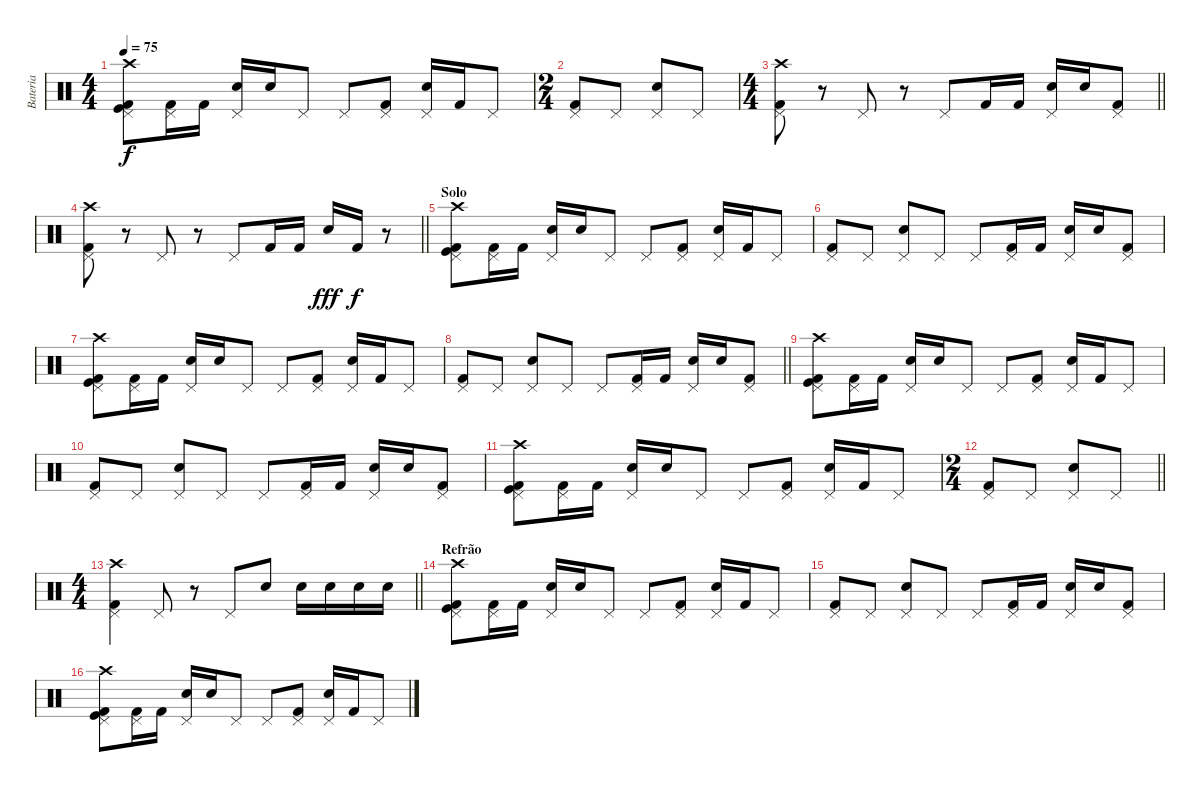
\track ("Bateria" "Bateria") {instrument percussion}
\staff {score}
\articulation defaults
\ts (4 4)
\tempo 75
\clef neutral
\ks c
("Crash high (hit)" "Kick (hit)" "Kick (hit) 2" "Pedal Hi-Hat (hit)").8{dy f} ("Kick (hit) 2" "Pedal Hi-Hat (hit)").16 "Kick (hit) 2".16 ("Snare (hit) 2" "Pedal Hi-Hat (hit)").16 "Snare (hit) 2".16 "Pedal Hi-Hat (hit)".8 "Pedal Hi-Hat (hit)".8 ("Kick (hit) 2" "Pedal Hi-Hat (hit)").8 ("Pedal Hi-Hat (hit)" "Snare (hit) 2").16 "Kick (hit) 2".16 "Pedal Hi-Hat (hit)".8 |
\ts (2 4)
("Pedal Hi-Hat (hit)" "Kick (hit) 2").8 "Pedal Hi-Hat (hit)".8 ("Snare (hit) 2" "Pedal Hi-Hat (hit)").8 "Pedal Hi-Hat (hit)".8 |
\ts (4 4)
\barLineRight lightlight
("Kick (hit) 2" "Pedal Hi-Hat (hit)" "Crash high (hit)").8 r.8 "Pedal Hi-Hat (hit)".8 r.8 "Pedal Hi-Hat (hit)".8 "Kick (hit) 2".16 "Kick (hit) 2".16 ("Pedal Hi-Hat (hit)" "Snare (hit) 2").16 "Snare (hit) 2".16 ("Kick (hit) 2" "Pedal Hi-Hat (hit)").8 |
\barLineRight lightlight
("Kick (hit) 2" "Pedal Hi-Hat (hit)" "Crash high (hit)").8 r.8 "Pedal Hi-Hat (hit)".8 r.8 "Pedal Hi-Hat (hit)".8 "Kick (hit) 2".16 "Kick (hit) 2".16 "Snare (hit) 2".16{dy fff} "Kick (hit) 2".16{dy f} r.8 |
\section ("" "Solo")
("Kick (hit)" "Crash high (hit)" "Kick (hit) 2" "Pedal Hi-Hat (hit)").8 ("Kick (hit) 2" "Pedal Hi-Hat (hit)").16 "Kick (hit) 2".16 ("Snare (hit) 2" "Pedal Hi-Hat (hit)").16 "Snare (hit) 2".16 "Pedal Hi-Hat (hit)".8 "Pedal Hi-Hat (hit)".8 ("Pedal Hi-Hat (hit)" "Kick (hit) 2").8 ("Pedal Hi-Hat (hit)" "Snare (hit) 2").16 "Kick (hit) 2".16 "Pedal Hi-Hat (hit)".8 |
("Pedal Hi-Hat (hit)" "Kick (hit) 2").8 "Pedal Hi-Hat (hit)".8 ("Snare (hit) 2" "Pedal Hi-Hat (hit)").8 "Pedal Hi-Hat (hit)".8 "Pedal Hi-Hat (hit)".8 ("Pedal Hi-Hat (hit)" "Kick (hit) 2").16 "Kick (hit) 2".16 ("Pedal Hi-Hat (hit)" "Snare (hit) 2").16 "Snare (hit) 2".16 ("Kick (hit) 2" "Pedal Hi-Hat (hit)").8 |
("Crash high (hit)" "Kick (hit) 2" "Pedal Hi-Hat (hit)" "Kick (hit)").8 ("Kick (hit) 2" "Pedal Hi-Hat (hit)").16 "Kick (hit) 2".16 ("Snare (hit) 2" "Pedal Hi-Hat (hit)").16 "Snare (hit) 2".16 "Pedal Hi-Hat (hit)".8 "Pedal Hi-Hat (hit)".8 ("Kick (hit) 2" "Pedal Hi-Hat (hit)").8 ("Pedal Hi-Hat (hit)" "Snare (hit) 2").16 "Kick (hit) 2".16 "Pedal Hi-Hat (hit)".8 |
\barLineRight lightlight
("Kick (hit) 2" "Pedal Hi-Hat (hit)").8 "Pedal Hi-Hat (hit)".8 ("Pedal Hi-Hat (hit)" "Snare (hit) 2").8 "Pedal Hi-Hat (hit)".8 "Pedal Hi-Hat (hit)".8 ("Pedal Hi-Hat (hit)" "Kick (hit) 2").16 "Kick (hit) 2".16 ("Pedal Hi-Hat (hit)" "Snare (hit) 2").16 "Snare (hit) 2".16 ("Pedal Hi-Hat (hit)" "Kick (hit) 2").8 |
("Crash high (hit)" "Kick (hit)" "Kick (hit) 2" "Pedal Hi-Hat (hit)").8 ("Kick (hit) 2" "Pedal Hi-Hat (hit)").16 "Kick (hit) 2".16 ("Snare (hit) 2" "Pedal Hi-Hat (hit)").16 "Snare (hit) 2".16 "Pedal Hi-Hat (hit)".8 "Pedal Hi-Hat (hit)".8 ("Pedal Hi-Hat (hit)" "Kick (hit) 2").8 ("Pedal Hi-Hat (hit)" "Snare (hit) 2").16 "Kick (hit) 2".16 "Pedal Hi-Hat (hit)".8 |
("Kick (hit) 2" "Pedal Hi-Hat (hit)").8 "Pedal Hi-Hat (hit)".8 ("Pedal Hi-Hat (hit)" "Snare (hit) 2").8 "Pedal Hi-Hat (hit)".8 "Pedal Hi-Hat (hit)".8 ("Pedal Hi-Hat (hit)" "Kick (hit) 2").16 "Kick (hit) 2".16 ("Pedal Hi-Hat (hit)" "Snare (hit) 2").16 "Snare (hit) 2".16 ("Kick (hit) 2" "Pedal Hi-Hat (hit)").8 |
("Crash high (hit)" "Kick (hit)" "Kick (hit) 2" "Pedal Hi-Hat (hit)").8 ("Kick (hit) 2" "Pedal Hi-Hat (hit)").16 "Kick (hit) 2".16 ("Snare (hit) 2" "Pedal Hi-Hat (hit)").16 "Snare (hit) 2".16 "Pedal Hi-Hat (hit)".8 "Pedal Hi-Hat (hit)".8 ("Kick (hit) 2" "Pedal Hi-Hat (hit)").8 ("Pedal Hi-Hat (hit)" "Snare (hit) 2").16 "Kick (hit) 2".16 "Pedal Hi-Hat (hit)".8 |
\ts (2 4)
\barLineRight lightlight
("Pedal Hi-Hat (hit)" "Kick (hit) 2").8 "Pedal Hi-Hat (hit)".8 ("Snare (hit) 2" "Pedal Hi-Hat (hit)").8 "Pedal Hi-Hat (hit)".8 |
\ts (4 4)
\barLineRight lightlight
("Crash high (hit)" "Kick (hit) 2" "Pedal Hi-Hat (hit)").4 "Pedal Hi-Hat (hit)".8 r.8 "Pedal Hi-Hat (hit)".8 "Snare (hit) 2".8 "Snare (hit) 2".16 "Snare (hit) 2".16 "Snare (hit) 2".16 "Snare (hit) 2".16 |
\section ("" "Refrão")
("Kick (hit) 2" "Crash high (hit)" "Kick (hit)" "Pedal Hi-Hat (hit)").8 ("Pedal Hi-Hat (hit)" "Kick (hit) 2").16 "Kick (hit) 2".16 ("Snare (hit) 2" "Pedal Hi-Hat (hit)").16 "Snare (hit) 2".16 "Pedal Hi-Hat (hit)".8 "Pedal Hi-Hat (hit)".8 ("Pedal Hi-Hat (hit)" "Kick (hit) 2").8 ("Snare (hit) 2" "Pedal Hi-Hat (hit)").16 "Kick (hit) 2".16 "Pedal Hi-Hat (hit)".8 |
("Pedal Hi-Hat (hit)" "Kick (hit) 2").8 "Pedal Hi-Hat (hit)".8 ("Snare (hit) 2" "Pedal Hi-Hat (hit)").8 "Pedal Hi-Hat (hit)".8 "Pedal Hi-Hat (hit)".8 ("Pedal Hi-Hat (hit)" "Kick (hit) 2").16 "Kick (hit) 2".16 ("Pedal Hi-Hat (hit)" "Snare (hit) 2").16 "Snare (hit) 2".16 ("Pedal Hi-Hat (hit)" "Kick (hit) 2").8 |
("Kick (hit) 2" "Crash high (hit)" "Kick (hit)" "Pedal Hi-Hat (hit)").8 ("Pedal Hi-Hat (hit)" "Kick (hit) 2").16 "Kick (hit) 2".16 ("Snare (hit) 2" "Pedal Hi-Hat (hit)").16 "Snare (hit) 2".16 "Pedal Hi-Hat (hit)".8 "Pedal Hi-Hat (hit)".8 ("Pedal Hi-Hat (hit)" "Kick (hit) 2").8 ("Snare (hit) 2" "Pedal Hi-Hat (hit)").16 "Kick (hit) 2".16 "Pedal Hi-Hat (hit)".8
